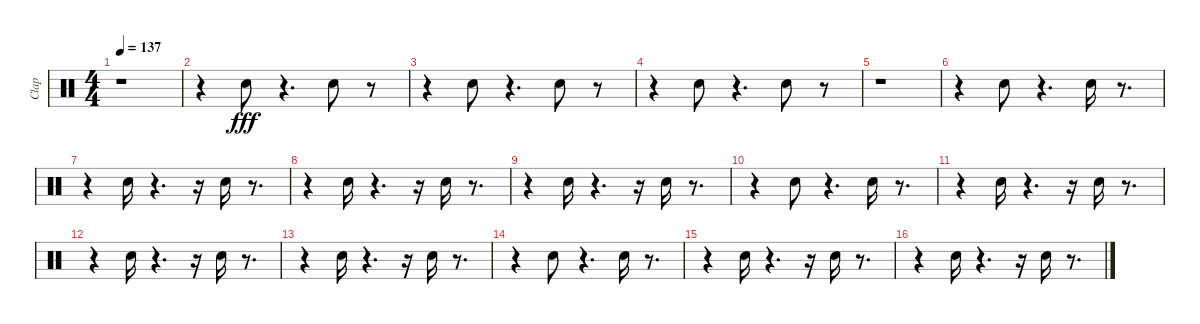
\track ("Clap" "Clap") {instrument percussion}
\staff {score}
\articulation defaults
\ts (4 4)
\tempo 137
\clef neutral
\ks c
r.1{dy fff} |
r.4 "Hand Clap (hit)".8 r.4{d} "Hand Clap (hit)".8 r.8 |
r.4 "Hand Clap (hit)".8 r.4{d} "Hand Clap (hit)".8 r.8 |
r.4 "Hand Clap (hit)".8 r.4{d} "Hand Clap (hit)".8 r.8 |
r.1 |
r.4 "Hand Clap (hit)".8 r.4{d} "Hand Clap (hit)".16 r.8{d} |
r.4 "Hand Clap (hit)".16 r.4{d} r.16 "Hand Clap (hit)".16 r.8{d} |
r.4 "Hand Clap (hit)".16 r.4{d} r.16 "Hand Clap (hit)".16 r.8{d} |
r.4 "Hand Clap (hit)".16 r.4{d} r.16 "Hand Clap (hit)".16 r.8{d} |
r.4 "Hand Clap (hit)".8 r.4{d} "Hand Clap (hit)".16 r.8{d} |
r.4 "Hand Clap (hit)".16 r.4{d} r.16 "Hand Clap (hit)".16 r.8{d} |
r.4 "Hand Clap (hit)".16 r.4{d} r.16 "Hand Clap (hit)".16 r.8{d} |
r.4 "Hand Clap (hit)".16 r.4{d} r.16 "Hand Clap (hit)".16 r.8{d} |
r.4 "Hand Clap (hit)".8 r.4{d} "Hand Clap (hit)".16 r.8{d} |
r.4 "Hand Clap (hit)".16 r.4{d} r.16 "Hand Clap (hit)".16 r.8{d} |
r.4 "Hand Clap (hit)".16 r.4{d} r.16 "Hand Clap (hit)".16 r.8{d}
